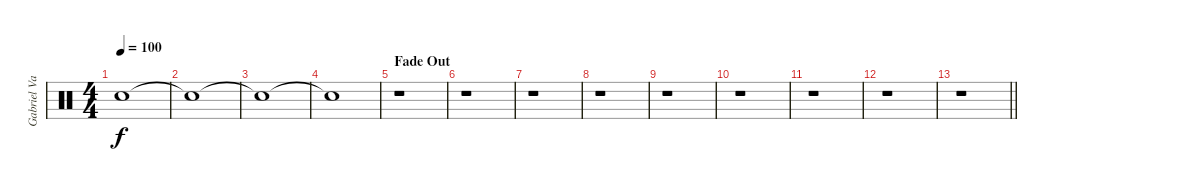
\track ("Gabriel Valerio" "Gabriel Va") {instrument percussion}
\staff {score}
\articulation defaults
\ts (4 4)
\tempo 100
\clef neutral
\ks c "Snare (hit)"{t}.1{dy f}
|
"Snare (hit)"{t}.1 |
"Snare (hit)"{t}.1 |
"Snare (hit)"{t}.1 |
\section ("" "Fade Out")
r.1{volume 8} |
r.1 |
r.1 |
r.1{volume 5} |
r.1 |
r.1 |
r.1{volume 0} |
r.1 |
\barLineRight lightlight
r.1
